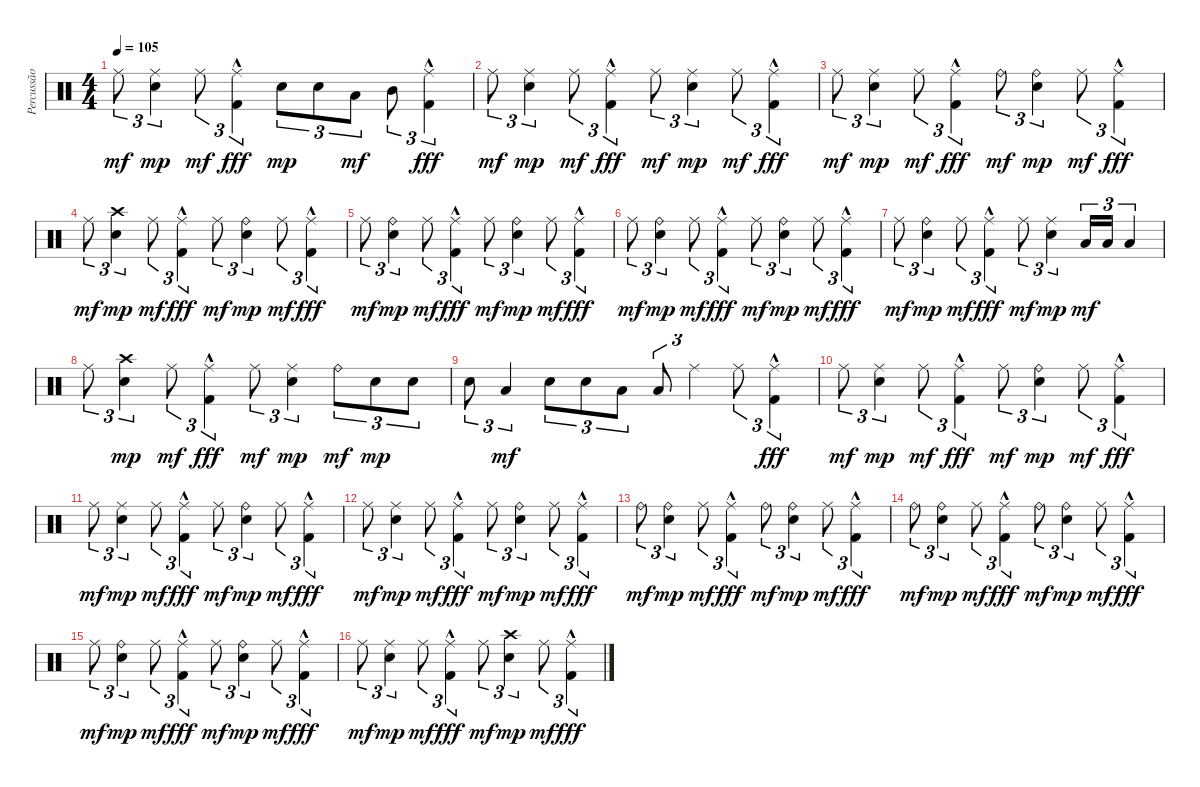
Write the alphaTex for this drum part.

\track ("Percussão" "Percussão") {instrument percussion}
\staff {score}
\articulation defaults
\ts (4 4)
\tempo 105
\clef neutral
\ks c "Ride (middle)".8{tu (3 2) dy mf}
("Ride (middle)" "Electric Snare (hit)").4{tu (3 2) dy mp} "Ride (middle)".8{tu (3 2) dy mf} ("Ride (middle)" "Kick (hit) 2"{hac}).4{tu (3 2) dy fff} "Electric Snare (hit)".8{tu (3 2) dy mp} "Electric Snare (hit)".8{tu (3 2)} "Low Tom (hit)".8{tu (3 2) dy mf} "Mid Tom (hit)".8{tu (3 2)} ("Ride (middle)" "Kick (hit) 2"{hac}).4{tu (3 2) dy fff} |
"Ride (middle)".8{tu (3 2) dy mf} ("Ride (middle)" "Electric Snare (hit)").4{tu (3 2) dy mp} "Ride (middle)".8{tu (3 2) dy mf} ("Ride (middle)" "Kick (hit) 2"{hac}).4{tu (3 2) dy fff} "Ride (middle)".8{tu (3 2) dy mf} ("Ride (middle)" "Electric Snare (hit)").4{tu (3 2) dy mp} "Ride (middle)".8{tu (3 2) dy mf} ("Ride (middle)" "Kick (hit) 2"{hac}).4{tu (3 2) dy fff} |
"Ride (middle)".8{tu (3 2) dy mf} ("Ride (middle)" "Electric Snare (hit)").4{tu (3 2) dy mp} "Ride (middle)".8{tu (3 2) dy mf} ("Ride (middle)" "Kick (hit) 2"{hac}).4{tu (3 2) dy fff} "Ride (bell)".8{tu (3 2) dy mf} ("Ride (bell)" "Electric Snare (hit)").4{tu (3 2) dy mp} "Ride (middle)".8{tu (3 2) dy mf} ("Ride (middle)" "Kick (hit) 2"{hac}).4{tu (3 2) dy fff} |
"Ride (middle)".8{tu (3 2) dy mf} ("Crash high (hit)" "Electric Snare (hit)").4{tu (3 2) dy mp} "Ride (middle)".8{tu (3 2) dy mf} ("Ride (middle)" "Kick (hit) 2"{hac}).4{tu (3 2) dy fff} "Ride (middle)".8{tu (3 2) dy mf} ("Ride (bell)" "Electric Snare (hit)").4{tu (3 2) dy mp} "Ride (middle)".8{tu (3 2) dy mf} ("Ride (middle)" "Kick (hit) 2"{hac}).4{tu (3 2) dy fff} |
"Ride (middle)".8{tu (3 2) dy mf} ("Ride (bell)" "Electric Snare (hit)").4{tu (3 2) dy mp} "Ride (middle)".8{tu (3 2) dy mf} ("Ride (middle)" "Kick (hit) 2"{hac}).4{tu (3 2) dy fff} "Ride (middle)".8{tu (3 2) dy mf} ("Ride (bell)" "Electric Snare (hit)").4{tu (3 2) dy mp} "Ride (middle)".8{tu (3 2) dy mf} ("Ride (middle)" "Kick (hit) 2"{hac}).4{tu (3 2) dy fff} |
"Ride (middle)".8{tu (3 2) dy mf} ("Ride (bell)" "Electric Snare (hit)").4{tu (3 2) dy mp} "Ride (middle)".8{tu (3 2) dy mf} ("Ride (middle)" "Kick (hit) 2"{hac}).4{tu (3 2) dy fff} "Ride (middle)".8{tu (3 2) dy mf} ("Ride (bell)" "Electric Snare (hit)").4{tu (3 2) dy mp} "Ride (middle)".8{tu (3 2) dy mf} ("Ride (middle)" "Kick (hit) 2"{hac}).4{tu (3 2) dy fff} |
"Ride (middle)".8{tu (3 2) dy mf} ("Ride (bell)" "Electric Snare (hit)").4{tu (3 2) dy mp} "Ride (middle)".8{tu (3 2) dy mf} ("Ride (middle)" "Kick (hit) 2"{hac}).4{tu (3 2) dy fff} "Ride (middle)".8{tu (3 2) dy mf} ("Ride (middle)" "Electric Snare (hit)").4{tu (3 2) dy mp} "Low Floor Tom (hit)".16{tu (3 2) dy mf} "Low Floor Tom (hit)".16{tu (3 2)} "Low Floor Tom (hit)".4{tu (3 2)} |
"Ride (middle)".8{tu (3 2)} ("Crash high (hit)" "Electric Snare (hit)").4{tu (3 2) dy mp} "Ride (middle)".8{tu (3 2) dy mf} ("Ride (middle)" "Kick (hit) 2"{hac}).4{tu (3 2) dy fff} "Ride (middle)".8{tu (3 2) dy mf} ("Ride (middle)" "Electric Snare (hit)").4{tu (3 2) dy mp} "Ride (bell)".8{tu (3 2) dy mf} "Electric Snare (hit)".8{tu (3 2) dy mp} "Electric Snare (hit)".8{tu (3 2)} |
"Electric Snare (hit)".8{tu (3 2)} "Low Tom (hit)".4{tu (3 2) dy mf} "Electric Snare (hit)".8{tu (3 2)} "Electric Snare (hit)".8{tu (3 2)} "Low Tom (hit)".8{tu (3 2)} "Low Tom (hit)".8{tu (3 2)} "Ride (middle)".4{tu (3 2)} "Ride (middle)".8{tu (3 2)} ("Ride (middle)" "Kick (hit) 2"{hac}).4{tu (3 2) dy fff} |
"Ride (middle)".8{tu (3 2) dy mf} ("Ride (middle)" "Electric Snare (hit)").4{tu (3 2) dy mp} "Ride (middle)".8{tu (3 2) dy mf} ("Ride (middle)" "Kick (hit) 2"{hac}).4{tu (3 2) dy fff} "Ride (middle)".8{tu (3 2) dy mf} ("Ride (bell)" "Electric Snare (hit)").4{tu (3 2) dy mp} "Ride (middle)".8{tu (3 2) dy mf} ("Ride (middle)" "Kick (hit) 2"{hac}).4{tu (3 2) dy fff} |
"Ride (middle)".8{tu (3 2) dy mf} ("Ride (middle)" "Electric Snare (hit)").4{tu (3 2) dy mp} "Ride (middle)".8{tu (3 2) dy mf} ("Ride (middle)" "Kick (hit) 2"{hac}).4{tu (3 2) dy fff} "Ride (middle)".8{tu (3 2) dy mf} ("Ride (bell)" "Electric Snare (hit)").4{tu (3 2) dy mp} "Ride (middle)".8{tu (3 2) dy mf} ("Ride (middle)" "Kick (hit) 2"{hac}).4{tu (3 2) dy fff} |
"Ride (middle)".8{tu (3 2) dy mf} ("Ride (middle)" "Electric Snare (hit)").4{tu (3 2) dy mp} "Ride (middle)".8{tu (3 2) dy mf} ("Ride (middle)" "Kick (hit) 2"{hac}).4{tu (3 2) dy fff} "Ride (middle)".8{tu (3 2) dy mf} ("Ride (bell)" "Electric Snare (hit)").4{tu (3 2) dy mp} "Ride (middle)".8{tu (3 2) dy mf} ("Ride (middle)" "Kick (hit) 2"{hac}).4{tu (3 2) dy fff} |
"Ride (bell)".8{tu (3 2) dy mf} ("Ride (bell)" "Electric Snare (hit)").4{tu (3 2) dy mp} "Ride (middle)".8{tu (3 2) dy mf} ("Ride (middle)" "Kick (hit) 2"{hac}).4{tu (3 2) dy fff} "Ride (bell)".8{tu (3 2) dy mf} ("Ride (bell)" "Electric Snare (hit)").4{tu (3 2) dy mp} "Ride (middle)".8{tu (3 2) dy mf} ("Ride (middle)" "Kick (hit) 2"{hac}).4{tu (3 2) dy fff} |
"Ride (bell)".8{tu (3 2) dy mf volume 9} ("Ride (bell)" "Electric Snare (hit)").4{tu (3 2) dy mp} "Ride (middle)".8{tu (3 2) dy mf} ("Ride (middle)" "Kick (hit) 2"{hac}).4{tu (3 2) dy fff} "Ride (bell)".8{tu (3 2) dy mf} ("Ride (bell)" "Electric Snare (hit)").4{tu (3 2) dy mp} "Ride (middle)".8{tu (3 2) dy mf} ("Ride (middle)" "Kick (hit) 2"{hac}).4{tu (3 2) dy fff} |
"Ride (middle)".8{tu (3 2) dy mf} ("Ride (bell)" "Electric Snare (hit)").4{tu (3 2) dy mp} "Ride (middle)".8{tu (3 2) dy mf} ("Ride (middle)" "Kick (hit) 2"{hac}).4{tu (3 2) dy fff} "Ride (middle)".8{tu (3 2) dy mf} ("Ride (bell)" "Electric Snare (hit)").4{tu (3 2) dy mp} "Ride (middle)".8{tu (3 2) dy mf} ("Ride (middle)" "Kick (hit) 2"{hac}).4{tu (3 2) dy fff} |
"Ride (middle)".8{tu (3 2) dy mf} ("Ride (middle)" "Electric Snare (hit)").4{tu (3 2) dy mp} "Ride (middle)".8{tu (3 2) dy mf} ("Ride (middle)" "Kick (hit) 2"{hac}).4{tu (3 2) dy fff} "Ride (middle)".8{tu (3 2) dy mf} ("Crash high (hit)" "Electric Snare (hit)").4{tu (3 2) dy mp volume 7} "Ride (middle)".8{tu (3 2) dy mf} ("Ride (middle)" "Kick (hit) 2"{hac}).4{tu (3 2) dy fff}
